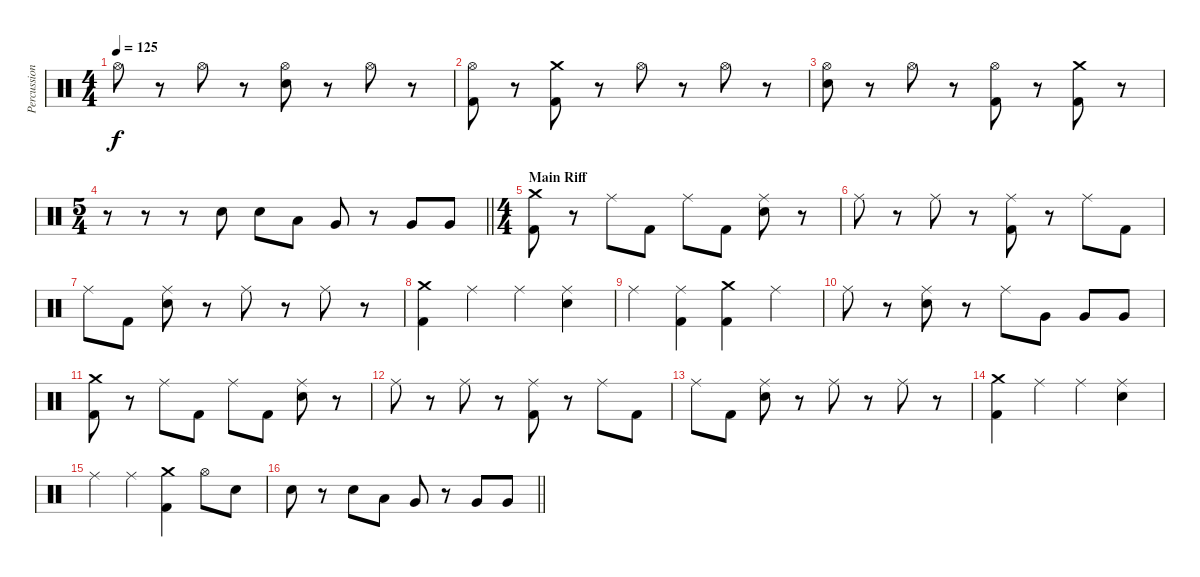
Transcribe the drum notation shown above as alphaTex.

\track ("Percussion" "Percussion") {instrument percussion}
\staff {score}
\articulation defaults
\ts (4 4)
\tempo 125
\clef neutral
\ks c "Hi-Hat (open)".8{dy f}
r.8 "Hi-Hat (open)".8 r.8 ("Hi-Hat (open)" "Electric Snare (hit)").8 r.8 "Hi-Hat (open)".8 r.8 |
("Hi-Hat (open)" "Kick (hit) 2").8 r.8 ("Crash medium (hit)" "Kick (hit) 2").8 r.8 "Hi-Hat (open)".8 r.8 "Hi-Hat (open)".8 r.8 |
("Hi-Hat (open)" "Electric Snare (hit)").8 r.8 "Hi-Hat (open)".8 r.8 ("Hi-Hat (open)" "Kick (hit) 2").8 r.8 ("Crash medium (hit)" "Kick (hit) 2").8 r.8 |
\ts (5 4)
\barLineRight lightlight
r.8 r.8 r.8 "Electric Snare (hit)".8 "Electric Snare (hit)".8 "Low Tom (hit)".8 "Very Low Tom (hit)".8 r.8 "Very Low Tom (hit)".8 "Very Low Tom (hit)".8 |
\ts (4 4)
\section ("" "Main Riff")
("Crash medium (hit)" "Kick (hit) 2").8 r.8 "Ride (middle)".8 "Kick (hit) 2".8 "Ride (middle)".8 "Kick (hit) 2".8 ("Ride (middle)" "Electric Snare (hit)").8 r.8 |
"Ride (middle)".8 r.8 "Ride (middle)".8 r.8 ("Ride (middle)" "Kick (hit) 2").8 r.8 "Ride (middle)".8 "Kick (hit) 2".8 |
"Ride (middle)".8 "Kick (hit) 2".8 ("Ride (middle)" "Electric Snare (hit)").8 r.8 "Ride (middle)".8 r.8 "Ride (middle)".8 r.8 |
("Crash medium (hit)" "Kick (hit) 2").4 "Ride (middle)".4 "Ride (middle)".4 ("Ride (middle)" "Electric Snare (hit)").4 |
"Ride (middle)".4 ("Ride (middle)" "Kick (hit) 2").4 ("Crash medium (hit)" "Kick (hit) 2").4 "Ride (middle)".4 |
"Ride (middle)".8 r.8 ("Ride (middle)" "Electric Snare (hit)").8 r.8 "Ride (middle)".8 "Very Low Tom (hit)".8 "Very Low Tom (hit)".8 "Very Low Tom (hit)".8 |
("Crash medium (hit)" "Kick (hit) 2").8 r.8 "Ride (middle)".8 "Kick (hit) 2".8 "Ride (middle)".8 "Kick (hit) 2".8 ("Ride (middle)" "Electric Snare (hit)").8 r.8 |
"Ride (middle)".8 r.8 "Ride (middle)".8 r.8 ("Ride (middle)" "Kick (hit) 2").8 r.8 "Ride (middle)".8 "Kick (hit) 2".8 |
"Ride (middle)".8 "Kick (hit) 2".8 ("Ride (middle)" "Electric Snare (hit)").8 r.8 "Ride (middle)".8 r.8 "Ride (middle)".8 r.8 |
("Crash medium (hit)" "Kick (hit) 2").4 "Ride (middle)".4 "Ride (middle)".4 ("Ride (middle)" "Electric Snare (hit)").4 |
"Ride (middle)".4 "Ride (middle)".4 ("Crash medium (hit)" "Kick (hit) 2").4 "Hi-Hat (open)".8 "Electric Snare (hit)".8 |
\barLineRight lightlight "Electric Snare (hit)".8
r.8 "Electric Snare (hit)".8 "Low Tom (hit)".8 "Very Low Tom (hit)".8 r.8 "Very Low Tom (hit)".8 "Very Low Tom (hit)".8
